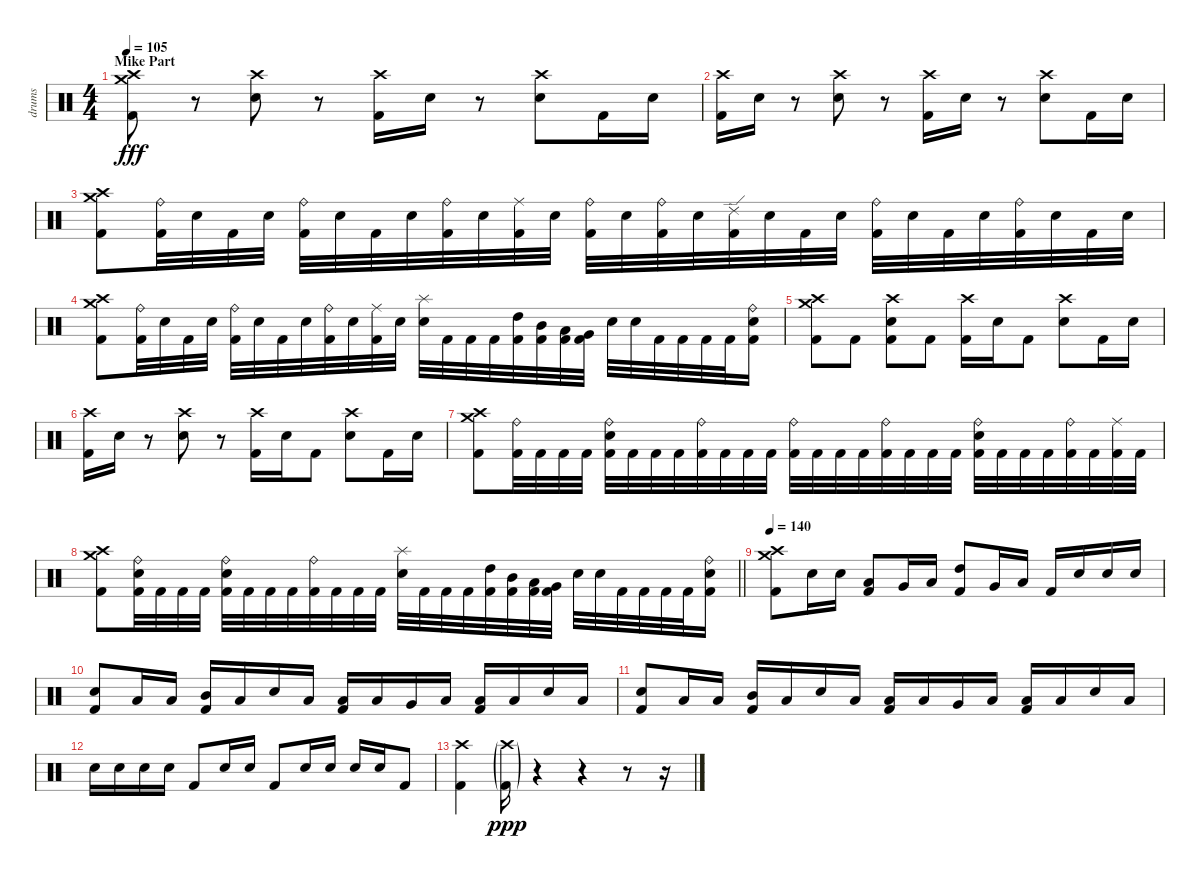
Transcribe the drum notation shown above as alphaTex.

\track ("drums" "drums") {instrument percussion}
\staff {score}
\articulation defaults
\ts (4 4)
\section ("" "Mike Part")
\tempo 105
\clef neutral
\ks c
("Crash high (hit)" "Crash medium (hit)" "Kick (hit) 2").8{dy fff} r.8 ("Crash high (hit)" "Electric Snare (hit)").8 r.8 ("Crash high (hit)" "Kick (hit) 2").16 "Electric Snare (hit)".16 r.8 ("Crash high (hit)" "Electric Snare (hit)").8 "Kick (hit) 2".16 "Electric Snare (hit)".16 |
("Crash high (hit)" "Kick (hit) 2").16 "Electric Snare (hit)".16 r.8 ("Crash high (hit)" "Electric Snare (hit)").8 r.8 ("Crash high (hit)" "Kick (hit) 2").16 "Electric Snare (hit)".16 r.8 ("Crash high (hit)" "Electric Snare (hit)").8 "Kick (hit) 2".16 "Electric Snare (hit)".16 |
("Crash high (hit)" "Crash medium (hit)" "Kick (hit) 2").8 ("Ride (bell)" "Kick (hit) 2").32 "Electric Snare (hit)".32 "Kick (hit) 2".32 "Electric Snare (hit)".32 ("Ride (bell)" "Kick (hit) 2").32 "Electric Snare (hit)".32 "Kick (hit) 2".32 "Electric Snare (hit)".32 ("Ride (bell)" "Kick (hit) 2").32 "Electric Snare (hit)".32 ("Ride (middle)" "Kick (hit) 2").32 "Electric Snare (hit)".32 ("Ride (bell)" "Kick (hit) 2").32 "Electric Snare (hit)".32 ("Ride (bell)" "Kick (hit) 2").32 "Electric Snare (hit)".32 ("Ride (edge) 2" "Kick (hit) 2").32 "Electric Snare (hit)".32 "Kick (hit) 2".32 "Electric Snare (hit)".32 ("Ride (bell)" "Kick (hit) 2").32 "Electric Snare (hit)".32 "Kick (hit) 2".32 "Electric Snare (hit)".32 ("Ride (bell)" "Kick (hit) 2").32 "Electric Snare (hit)".32 "Kick (hit) 2".32 "Electric Snare (hit)".32 |
("Crash high (hit)" "Crash medium (hit)" "Kick (hit) 2").8 ("Ride (bell)" "Kick (hit) 2").32 "Electric Snare (hit)".32 "Kick (hit) 2".32 "Electric Snare (hit)".32 ("Ride (bell)" "Kick (hit) 2").32 "Electric Snare (hit)".32 "Kick (hit) 2".32 "Electric Snare (hit)".32 ("Ride (bell)" "Kick (hit) 2").32 "Electric Snare (hit)".32 ("Ride (middle)" "Kick (hit) 2").32 "Electric Snare (hit)".32 ("Splash (hit)" "Electric Snare (hit)").32 "Kick (hit) 2".32 "Kick (hit) 2".32 "Kick (hit) 2".32 ("High Tom (hit)" "Kick (hit) 2").32 ("Mid Tom (hit)" "Kick (hit) 2").32 ("Low Tom (hit)" "Kick (hit) 2").32 ("Very Low Tom (hit)" "Kick (hit) 2").32 "Electric Snare (hit)".32 "Electric Snare (hit)".32 "Kick (hit) 2".32 "Kick (hit) 2".32 "Kick (hit) 2".32 "Kick (hit) 2".32 ("Ride (bell)" "Electric Snare (hit)" "Kick (hit) 2").16 |
("Crash high (hit)" "Crash medium (hit)" "Kick (hit) 2").8 "Kick (hit) 2".8 ("Crash high (hit)" "Electric Snare (hit)" "Kick (hit) 2").8 "Kick (hit) 2".8 ("Crash high (hit)" "Kick (hit) 2").16 "Electric Snare (hit)".16 "Kick (hit) 2".8 ("Crash high (hit)" "Electric Snare (hit)").8 "Kick (hit) 2".16 "Electric Snare (hit)".16 |
("Crash high (hit)" "Kick (hit) 2").16 "Electric Snare (hit)".16 r.8 ("Crash high (hit)" "Electric Snare (hit)").8 r.8 ("Crash high (hit)" "Kick (hit) 2").16 "Electric Snare (hit)".16 "Kick (hit) 2".8 ("Crash high (hit)" "Electric Snare (hit)").8 "Kick (hit) 2".16 "Electric Snare (hit)".16 |
("Crash high (hit)" "Crash medium (hit)" "Kick (hit) 2").8 ("Ride (bell)" "Kick (hit) 2").32 "Kick (hit) 2".32 "Kick (hit) 2".32 "Kick (hit) 2".32 ("Ride (bell)" "Electric Snare (hit)" "Kick (hit) 2").32 "Kick (hit) 2".32 "Kick (hit) 2".32 "Kick (hit) 2".32 ("Ride (bell)" "Kick (hit) 2").32 "Kick (hit) 2".32 "Kick (hit) 2".32 "Kick (hit) 2".32 ("Ride (bell)" "Kick (hit) 2").32 "Kick (hit) 2".32 "Kick (hit) 2".32 "Kick (hit) 2".32 ("Ride (bell)" "Kick (hit) 2").32 "Kick (hit) 2".32 "Kick (hit) 2".32 "Kick (hit) 2".32 ("Ride (bell)" "Electric Snare (hit)" "Kick (hit) 2").32 "Kick (hit) 2".32 "Kick (hit) 2".32 "Kick (hit) 2".32 ("Ride (bell)" "Kick (hit) 2").32 "Kick (hit) 2".32 ("Ride (middle)" "Kick (hit) 2").32 "Kick (hit) 2".32 |
\barLineRight lightlight
("Crash high (hit)" "Crash medium (hit)" "Kick (hit) 2").8 ("Ride (bell)" "Electric Snare (hit)" "Kick (hit) 2").32 "Kick (hit) 2".32 "Kick (hit) 2".32 "Kick (hit) 2".32 ("Ride (bell)" "Electric Snare (hit)" "Kick (hit) 2").32 "Kick (hit) 2".32 "Kick (hit) 2".32 "Kick (hit) 2".32 ("Ride (bell)" "Kick (hit) 2").32 "Kick (hit) 2".32 "Kick (hit) 2".32 "Kick (hit) 2".32 ("Splash (hit)" "Electric Snare (hit)").32 "Kick (hit) 2".32 "Kick (hit) 2".32 "Kick (hit) 2".32 ("High Tom (hit)" "Kick (hit) 2").32 ("Mid Tom (hit)" "Kick (hit) 2").32 ("Low Tom (hit)" "Kick (hit) 2").32 ("Very Low Tom (hit)" "Kick (hit) 2").32 "Electric Snare (hit)".32 "Electric Snare (hit)".32 "Kick (hit) 2".32 "Kick (hit) 2".32 "Kick (hit) 2".32 "Kick (hit) 2".32 ("Ride (bell)" "Electric Snare (hit)" "Kick (hit) 2").16 |
\section ("" "")
\tempo 140
("Crash high (hit)" "Crash medium (hit)" "Kick (hit) 2").8 "Electric Snare (hit)".16 "Electric Snare (hit)".16 ("Low Tom (hit)" "Kick (hit) 2").8 "Very Low Tom (hit)".16 "Low Floor Tom (hit)".16 ("High Tom (hit)" "Kick (hit) 2").8 "Very Low Tom (hit)".16 "Low Floor Tom (hit)".16 "Kick (hit) 2".16 "Electric Snare (hit)".16 "Electric Snare (hit)".16 "Electric Snare (hit)".16 |
("Electric Snare (hit)" "Kick (hit) 2").8 "Low Tom (hit)".16 "Low Floor Tom (hit)".16 ("Mid Tom (hit)" "Kick (hit) 2").16 "Low Floor Tom (hit)".16 "Electric Snare (hit)".16 "Low Floor Tom (hit)".16 ("Low Tom (hit)" "Kick (hit) 2").16 "Low Floor Tom (hit)".16 "Very Low Tom (hit)".16 "Low Floor Tom (hit)".16 ("Low Tom (hit)" "Kick (hit) 2").16 "Low Floor Tom (hit)".16 "Electric Snare (hit)".16 "Low Floor Tom (hit)".16 |
("Electric Snare (hit)" "Kick (hit) 2").8 "Low Tom (hit)".16 "Low Floor Tom (hit)".16 ("Mid Tom (hit)" "Kick (hit) 2").16 "Low Floor Tom (hit)".16 "Electric Snare (hit)".16 "Low Floor Tom (hit)".16 ("Low Tom (hit)" "Kick (hit) 2").16 "Low Floor Tom (hit)".16 "Very Low Tom (hit)".16 "Low Floor Tom (hit)".16 ("Low Tom (hit)" "Kick (hit) 2").16 "Low Floor Tom (hit)".16 "Electric Snare (hit)".16 "Low Floor Tom (hit)".16 |
"Electric Snare (hit)".16 "Electric Snare (hit)".16 "Electric Snare (hit)".16 "Electric Snare (hit)".16 "Kick (hit) 2".8 "Electric Snare (hit)".16 "Electric Snare (hit)".16 "Kick (hit) 2".8 "Electric Snare (hit)".16 "Electric Snare (hit)".16 "Electric Snare (hit)".16 "Electric Snare (hit)".16 "Kick (hit) 2".8 |
("Crash high (hit)" "Kick (hit) 2").4 ("Crash high (hit)"{g} "Kick (hit) 2"{g}).16{dy ppp} r.4 r.4 r.8 r.16
